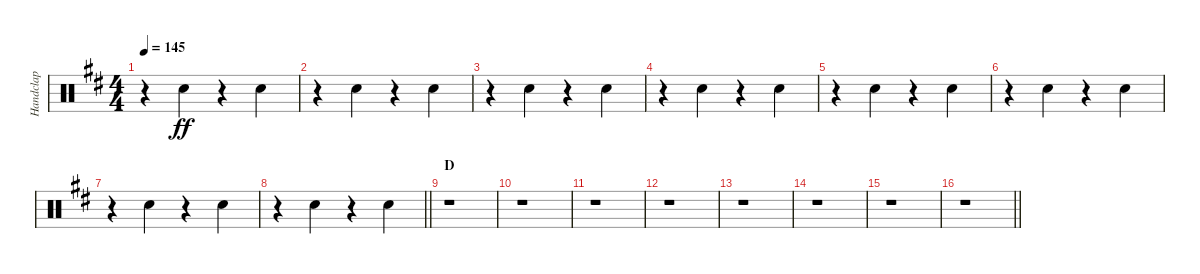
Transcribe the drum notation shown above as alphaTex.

\track ("Handclap" "Handclap") {instrument percussion}
\staff {score}
\articulation defaults
\ts (4 4)
\tempo 145
\clef neutral
\ks d
r.4{dy ff} "Hand Clap (hit)".4 r.4 "Hand Clap (hit)".4 |
r.4 "Hand Clap (hit)".4 r.4 "Hand Clap (hit)".4 |
r.4 "Hand Clap (hit)".4 r.4 "Hand Clap (hit)".4 |
r.4 "Hand Clap (hit)".4 r.4 "Hand Clap (hit)".4 |
r.4 "Hand Clap (hit)".4 r.4 "Hand Clap (hit)".4 |
r.4 "Hand Clap (hit)".4 r.4 "Hand Clap (hit)".4 |
r.4 "Hand Clap (hit)".4 r.4 "Hand Clap (hit)".4 |
\barLineRight lightlight
r.4 "Hand Clap (hit)".4 r.4 "Hand Clap (hit)".4 |
\section ("" "D")
r.1 |
r.1 |
r.1 |
r.1 |
r.1 |
r.1 |
r.1 |
\barLineRight lightlight
r.1
